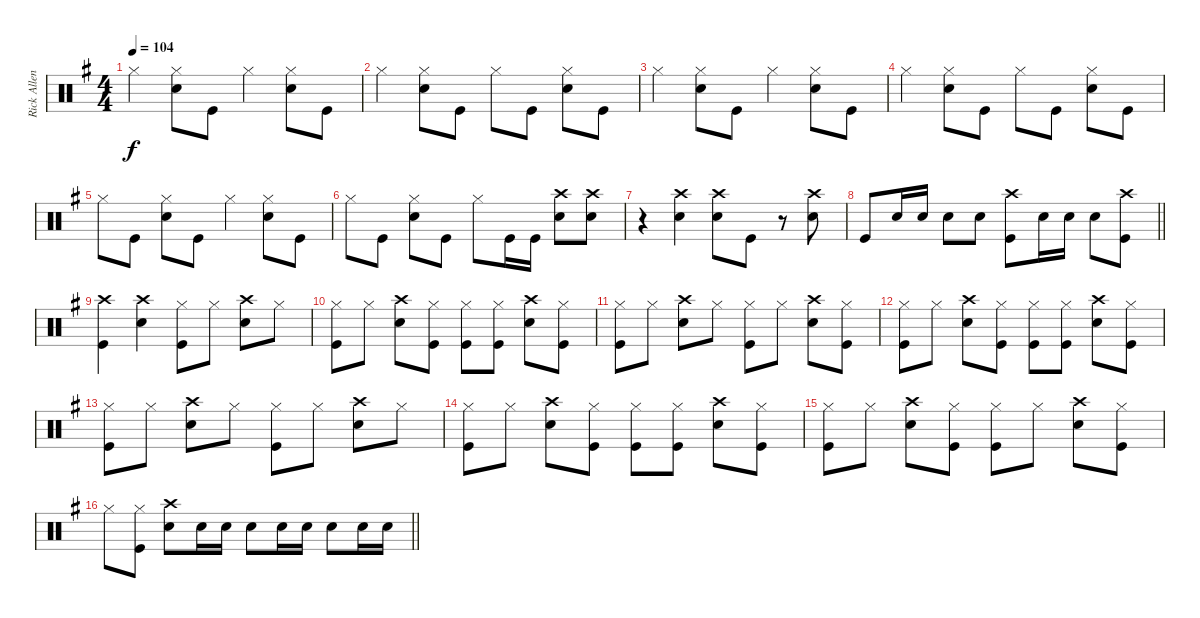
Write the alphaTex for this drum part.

\track ("Rick Allen" "Rick Allen") {instrument percussion}
\staff {score}
\articulation defaults
\ts (4 4)
\tempo 104
\clef neutral
\ks eminor "Hi-Hat (closed)".4{dy f}
("Hi-Hat (closed)" "Snare (hit) 2").8 "Kick (hit)".8 "Hi-Hat (closed)".4 ("Hi-Hat (closed)" "Snare (hit) 2").8 "Kick (hit)".8 |
"Hi-Hat (closed)".4 ("Hi-Hat (closed)" "Snare (hit) 2").8 "Kick (hit)".8 "Hi-Hat (closed)".8 "Kick (hit)".8 ("Hi-Hat (closed)" "Snare (hit) 2").8 "Kick (hit)".8 |
"Hi-Hat (closed)".4 ("Hi-Hat (closed)" "Snare (hit) 2").8 "Kick (hit)".8 "Hi-Hat (closed)".4 ("Hi-Hat (closed)" "Snare (hit) 2").8 "Kick (hit)".8 |
"Hi-Hat (closed)".4 ("Hi-Hat (closed)" "Snare (hit) 2").8 "Kick (hit)".8 "Hi-Hat (closed)".8 "Kick (hit)".8 ("Hi-Hat (closed)" "Snare (hit) 2").8 "Kick (hit)".8 |
"Hi-Hat (closed)".8 "Kick (hit)".8 ("Hi-Hat (closed)" "Snare (hit) 2").8 "Kick (hit)".8 "Hi-Hat (closed)".4 ("Hi-Hat (closed)" "Snare (hit) 2").8 "Kick (hit)".8 |
"Hi-Hat (closed)".8 "Kick (hit)".8 ("Hi-Hat (closed)" "Snare (hit) 2").8 "Kick (hit)".8 "Hi-Hat (closed)".8 "Kick (hit)".16 "Kick (hit)".16 ("Crash high (hit)" "Snare (hit) 2").8 ("Crash high (hit)" "Snare (hit) 2").8 |
r.4 ("Crash high (hit)" "Snare (hit) 2").4 ("Crash high (hit)" "Snare (hit) 2").8 "Kick (hit)".8 r.8 ("Crash high (hit)" "Snare (hit) 2").8 |
\barLineRight lightlight "Kick (hit)".8 "Snare (hit) 2".16 "Snare (hit) 2".16 "Snare (hit) 2".8 "Snare (hit) 2".8
("Crash high (hit)" "Kick (hit)").8 "Snare (hit) 2".16 "Snare (hit) 2".16 "Snare (hit) 2".8 ("Crash high (hit)" "Kick (hit)").8 |
("Crash high (hit)" "Kick (hit)").4 ("Crash high (hit)" "Snare (hit) 2").4 ("Hi-Hat (closed)" "Kick (hit)").8 "Hi-Hat (closed)".8 ("Crash high (hit)" "Snare (hit) 2").8 "Hi-Hat (closed)".8 |
("Hi-Hat (closed)" "Kick (hit)").8 "Hi-Hat (closed)".8 ("Crash high (hit)" "Snare (hit) 2").8 ("Hi-Hat (closed)" "Kick (hit)").8 ("Hi-Hat (closed)" "Kick (hit)").8 ("Hi-Hat (closed)" "Kick (hit)").8 ("Crash high (hit)" "Snare (hit) 2").8 ("Hi-Hat (closed)" "Kick (hit)").8 |
("Hi-Hat (closed)" "Kick (hit)").8 "Hi-Hat (closed)".8 ("Crash high (hit)" "Snare (hit) 2").8 "Hi-Hat (closed)".8 ("Hi-Hat (closed)" "Kick (hit)").8 "Hi-Hat (closed)".8 ("Crash high (hit)" "Snare (hit) 2").8 ("Hi-Hat (closed)" "Kick (hit)").8 |
("Hi-Hat (closed)" "Kick (hit)").8 "Hi-Hat (closed)".8 ("Crash high (hit)" "Snare (hit) 2").8 ("Hi-Hat (closed)" "Kick (hit)").8 ("Hi-Hat (closed)" "Kick (hit)").8 ("Hi-Hat (closed)" "Kick (hit)").8 ("Crash high (hit)" "Snare (hit) 2").8 ("Hi-Hat (closed)" "Kick (hit)").8 |
("Hi-Hat (closed)" "Kick (hit)").8 "Hi-Hat (closed)".8 ("Crash high (hit)" "Snare (hit) 2").8 "Hi-Hat (closed)".8 ("Hi-Hat (closed)" "Kick (hit)").8 "Hi-Hat (closed)".8 ("Crash high (hit)" "Snare (hit) 2").8 "Hi-Hat (closed)".8 |
("Hi-Hat (closed)" "Kick (hit)").8 "Hi-Hat (closed)".8 ("Crash high (hit)" "Snare (hit) 2").8 ("Hi-Hat (closed)" "Kick (hit)").8 ("Hi-Hat (closed)" "Kick (hit)").8 ("Hi-Hat (closed)" "Kick (hit)").8 ("Crash high (hit)" "Snare (hit) 2").8 ("Hi-Hat (closed)" "Kick (hit)").8 |
("Hi-Hat (closed)" "Kick (hit)").8 "Hi-Hat (closed)".8 ("Crash high (hit)" "Snare (hit) 2").8 ("Hi-Hat (closed)" "Kick (hit)").8 ("Hi-Hat (closed)" "Kick (hit)").8 "Hi-Hat (closed)".8 ("Crash high (hit)" "Snare (hit) 2").8 ("Hi-Hat (closed)" "Kick (hit)").8 |
\barLineRight lightlight "Hi-Hat (closed)".8
("Hi-Hat (closed)" "Kick (hit)").8 ("Crash high (hit)" "Snare (hit) 2").8 "Snare (hit) 2".16 "Snare (hit) 2".16 "Snare (hit) 2".8 "Snare (hit) 2".16 "Snare (hit) 2".16 "Snare (hit) 2".8 "Snare (hit) 2".16 "Snare (hit) 2".16
